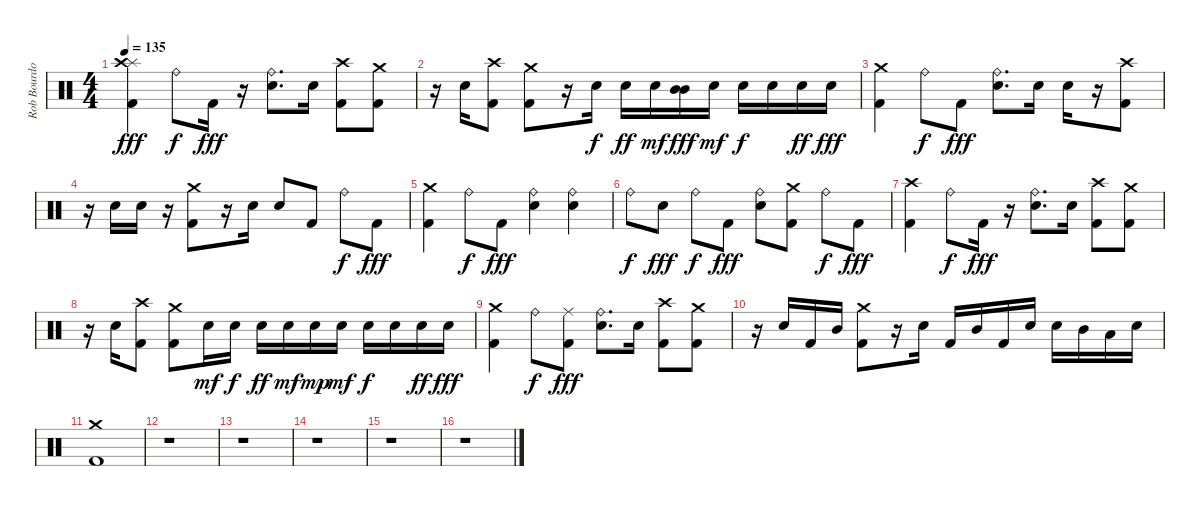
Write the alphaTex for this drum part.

\track ("Rob Bourdon - Beats & Drums" "Rob Bourdo") {instrument percussion}
\staff {score}
\articulation defaults
\ts (4 4)
\tempo 135
\clef neutral
\ks c
("Splash (hit)" "Crash high (hit)" "Kick (hit) 2").4{dy fff} "Ride (bell)".8{dy f} "Kick (hit) 2".16{dy fff} r.16 ("Ride (bell)" "Electric Snare (hit)").8{d} "Electric Snare (hit)".16 ("Crash high (hit)" "Kick (hit) 2").8 ("Crash medium (hit)" "Kick (hit) 2").8 |
r.16 "Electric Snare (hit)".16 ("Crash high (hit)" "Kick (hit) 2").8 ("Crash medium (hit)" "Kick (hit) 2").8 r.16 "Electric Snare (hit)".16{dy f} "Electric Snare (hit)".16{dy ff} "Electric Snare (hit)".16{dy mf} ("Mid Tom (hit)" "Mid Tom (hit)").16{dy fff} "Electric Snare (hit)".16{dy mf} "Electric Snare (hit)".16{dy f} "Electric Snare (hit)".16 "Electric Snare (hit)".16{dy ff} "Electric Snare (hit)".16{dy fff} |
("Crash medium (hit)" "Kick (hit) 2").4 "Ride (bell)".8{dy f} "Kick (hit) 2".8{dy fff} ("Ride (bell)" "Electric Snare (hit)").8{d} "Electric Snare (hit)".16 "Electric Snare (hit)".16 r.16 ("Crash high (hit)" "Kick (hit) 2").8 |
r.16 "Electric Snare (hit)".16 "Electric Snare (hit)".16 r.16 ("Crash medium (hit)" "Kick (hit) 2").8 r.16 "Electric Snare (hit)".16 "Electric Snare (hit)".8 "Kick (hit) 2".8 "Ride (bell)".8{dy f} "Kick (hit) 2".8{dy fff} |
("Crash medium (hit)" "Kick (hit) 2").4 "Ride (bell)".8{dy f} "Kick (hit) 2".8{dy fff} ("Ride (bell)" "Electric Snare (hit)").4 ("Ride (bell)" "Electric Snare (hit)").4 |
"Ride (bell)".8{dy f} "Electric Snare (hit)".8{dy fff} "Ride (bell)".8{dy f} "Kick (hit) 2".8{dy fff} ("Ride (bell)" "Electric Snare (hit)").8 ("Crash medium (hit)" "Kick (hit) 2").8 "Ride (bell)".8{dy f} "Kick (hit) 2".8{dy fff} |
("Crash high (hit)" "Kick (hit) 2").4 "Ride (bell)".8{dy f} "Kick (hit) 2".16{dy fff} r.16 ("Ride (bell)" "Electric Snare (hit)").8{d} "Electric Snare (hit)".16 ("Crash high (hit)" "Kick (hit) 2").8 ("Crash medium (hit)" "Kick (hit) 2").8 |
r.16 "Electric Snare (hit)".16 ("Crash high (hit)" "Kick (hit) 2").8 ("Crash medium (hit)" "Kick (hit) 2").8 "Electric Snare (hit)".16{dy mf} "Electric Snare (hit)".16{dy f} "Electric Snare (hit)".16{dy ff} "Electric Snare (hit)".16{dy mf} "Electric Snare (hit)".16{dy mp} "Electric Snare (hit)".16{dy mf} "Electric Snare (hit)".16{dy f} "Electric Snare (hit)".16 "Electric Snare (hit)".16{dy ff} "Electric Snare (hit)".16{dy fff} |
("Crash medium (hit)" "Kick (hit) 2").4 "Ride (bell)".8{dy f} ("Ride (middle)" "Kick (hit) 2").8{dy fff} ("Ride (bell)" "Electric Snare (hit)").8{d} "Electric Snare (hit)".16 ("Crash high (hit)" "Kick (hit) 2").8 ("Crash medium (hit)" "Kick (hit) 2").8 |
r.16 "Electric Snare (hit)".16 "Kick (hit) 2".16 "Mid Tom (hit)".16 ("Crash medium (hit)" "Kick (hit) 2").8 r.16 "Electric Snare (hit)".16 "Kick (hit) 2".16 "Mid Tom (hit)".16 "Kick (hit) 2".16 "Electric Snare (hit)".16 "Electric Snare (hit)".16 "Mid Tom (hit)".16 "Low Tom (hit)".16 "Electric Snare (hit)".16 |
("Crash medium (hit)" "Kick (hit) 2").1 |
r.1 |
r.1 |
r.1 |
r.1 |
r.1
